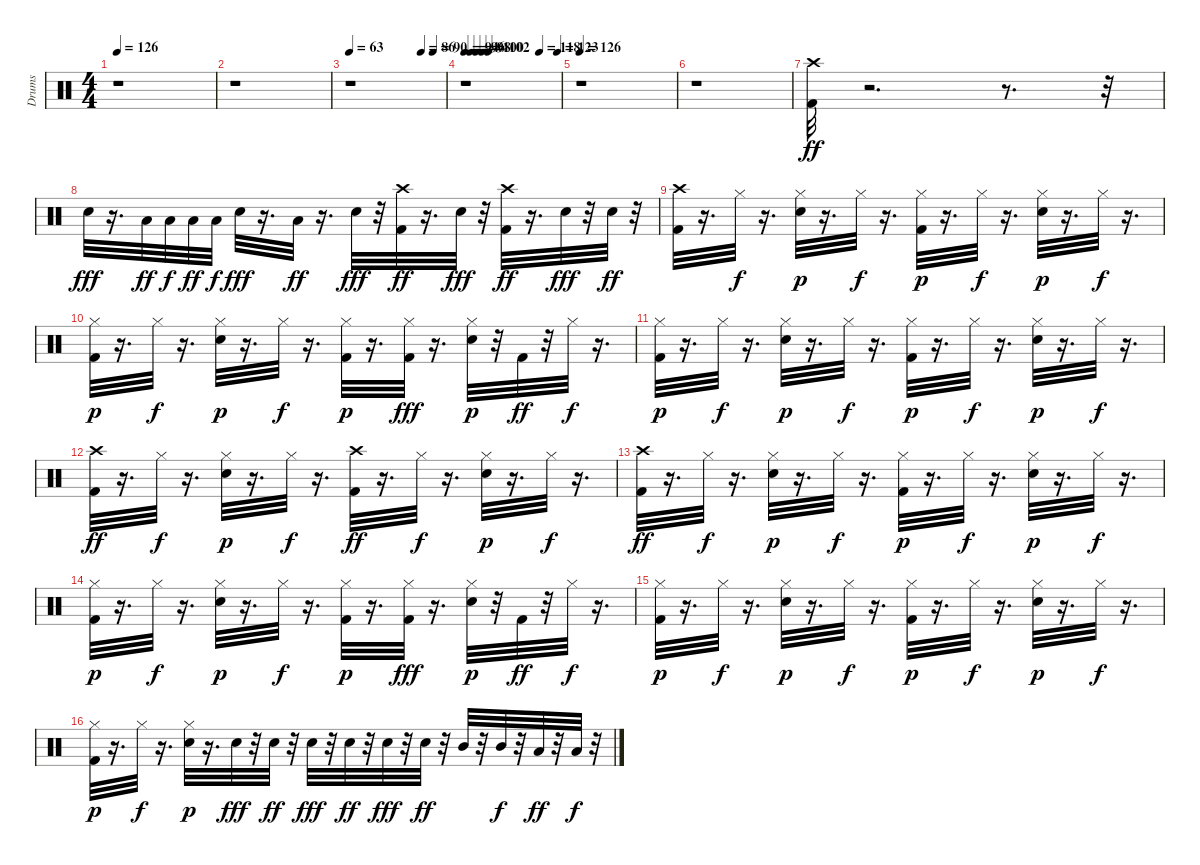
\track ("Drums                               " "Drums     ") {instrument percussion}
\staff {score}
\articulation defaults
\ts (4 4)
\tempo 126
\clef neutral
\ks c
r.1{dy ff} |
r.1 |
\tempo 63
\tempo (86 0.75)
\tempo (90 0.875)
r.1 |
\tempo 94
\tempo (96 0.0625)
\tempo (98 0.125)
\tempo (100 0.1875)
\tempo (102 0.25)
\tempo (118 0.78125)
\tempo (123 0.96875)
r.1 |
\tempo 126
r.1 |
r.1 |
("Kick (hit) 2" "Crash high (hit)").32 r.2{d} r.8{d} r.32 |
"Snare (hit) 2".32{dy fff} r.16{d} "Low Tom (hit)".32{dy ff} "Low Tom (hit)".32{dy f} "Low Tom (hit)".32{dy ff} "Low Tom (hit)".32{dy f} "Snare (hit) 2".32{dy fff} r.16{d} "Low Tom (hit)".32{dy ff} r.16{d} "Snare (hit) 2".32{dy fff} r.32 ("Kick (hit) 2" "Crash high (hit)").32{dy ff} r.16{d} "Snare (hit) 2".32{dy fff} r.32 ("Kick (hit) 2" "Crash high (hit)").32{dy ff} r.16{d} "Snare (hit) 2".32{dy fff} r.32 "Snare (hit) 2".32{dy ff} r.32 |
("Kick (hit) 2" "Crash high (hit)").32 r.16{d} "Hi-Hat (closed)".32{dy f} r.16{d} ("Snare (hit) 2" "Hi-Hat (closed)").32{dy p} r.16{d} "Hi-Hat (closed)".32{dy f} r.16{d} ("Kick (hit) 2" "Hi-Hat (closed)").32{dy p} r.16{d} "Hi-Hat (closed)".32{dy f} r.16{d} ("Snare (hit) 2" "Hi-Hat (closed)").32{dy p} r.16{d} "Hi-Hat (closed)".32{dy f} r.16{d} |
("Kick (hit) 2" "Hi-Hat (closed)").32{dy p} r.16{d} "Hi-Hat (closed)".32{dy f} r.16{d} ("Snare (hit) 2" "Hi-Hat (closed)").32{dy p} r.16{d} "Hi-Hat (closed)".32{dy f} r.16{d} ("Kick (hit) 2" "Hi-Hat (closed)").32{dy p} r.16{d} ("Hi-Hat (closed)" "Kick (hit) 2").32{dy fff} r.16{d} ("Snare (hit) 2" "Hi-Hat (closed)").32{dy p} r.32 "Kick (hit) 2".32{dy ff} r.32 "Hi-Hat (closed)".32{dy f} r.16{d} |
("Kick (hit) 2" "Hi-Hat (closed)").32{dy p} r.16{d} "Hi-Hat (closed)".32{dy f} r.16{d} ("Snare (hit) 2" "Hi-Hat (closed)").32{dy p} r.16{d} "Hi-Hat (closed)".32{dy f} r.16{d} ("Kick (hit) 2" "Hi-Hat (closed)").32{dy p} r.16{d} "Hi-Hat (closed)".32{dy f} r.16{d} ("Snare (hit) 2" "Hi-Hat (closed)").32{dy p} r.16{d} "Hi-Hat (closed)".32{dy f} r.16{d} |
("Kick (hit) 2" "Crash high (hit)").32{dy ff} r.16{d} "Hi-Hat (closed)".32{dy f} r.16{d} ("Snare (hit) 2" "Hi-Hat (closed)").32{dy p} r.16{d} "Hi-Hat (closed)".32{dy f} r.16{d} ("Kick (hit) 2" "Crash high (hit)").32{dy ff} r.16{d} "Hi-Hat (closed)".32{dy f} r.16{d} ("Snare (hit) 2" "Hi-Hat (closed)").32{dy p} r.16{d} "Hi-Hat (closed)".32{dy f} r.16{d} |
("Kick (hit) 2" "Crash high (hit)").32{dy ff} r.16{d} "Hi-Hat (closed)".32{dy f} r.16{d} ("Snare (hit) 2" "Hi-Hat (closed)").32{dy p} r.16{d} "Hi-Hat (closed)".32{dy f} r.16{d} ("Kick (hit) 2" "Hi-Hat (closed)").32{dy p} r.16{d} "Hi-Hat (closed)".32{dy f} r.16{d} ("Snare (hit) 2" "Hi-Hat (closed)").32{dy p} r.16{d} "Hi-Hat (closed)".32{dy f} r.16{d} |
("Kick (hit) 2" "Hi-Hat (closed)").32{dy p} r.16{d} "Hi-Hat (closed)".32{dy f} r.16{d} ("Snare (hit) 2" "Hi-Hat (closed)").32{dy p} r.16{d} "Hi-Hat (closed)".32{dy f} r.16{d} ("Kick (hit) 2" "Hi-Hat (closed)").32{dy p} r.16{d} ("Hi-Hat (closed)" "Kick (hit) 2").32{dy fff} r.16{d} ("Snare (hit) 2" "Hi-Hat (closed)").32{dy p} r.32 "Kick (hit) 2".32{dy ff} r.32 "Hi-Hat (closed)".32{dy f} r.16{d} |
("Kick (hit) 2" "Hi-Hat (closed)").32{dy p} r.16{d} "Hi-Hat (closed)".32{dy f} r.16{d} ("Snare (hit) 2" "Hi-Hat (closed)").32{dy p} r.16{d} "Hi-Hat (closed)".32{dy f} r.16{d} ("Kick (hit) 2" "Hi-Hat (closed)").32{dy p} r.16{d} "Hi-Hat (closed)".32{dy f} r.16{d} ("Snare (hit) 2" "Hi-Hat (closed)").32{dy p} r.16{d} "Hi-Hat (closed)".32{dy f} r.16{d} |
("Kick (hit) 2" "Hi-Hat (closed)").32{dy p} r.16{d} "Hi-Hat (closed)".32{dy f} r.16{d} ("Snare (hit) 2" "Hi-Hat (closed)").32{dy p} r.16{d} "Snare (hit) 2".32{dy fff} r.32 "Snare (hit) 2".32{dy ff} r.32 "Snare (hit) 2".32{dy fff} r.32 "Snare (hit) 2".32{dy ff} r.32 "Snare (hit) 2".32{dy fff} r.32 "Snare (hit) 2".32{dy ff} r.32 "Mid Tom (hit)".32 r.32 "Mid Tom (hit)".32{dy f} r.32 "Low Tom (hit)".32{dy ff} r.32 "Low Tom (hit)".32{dy f} r.32
